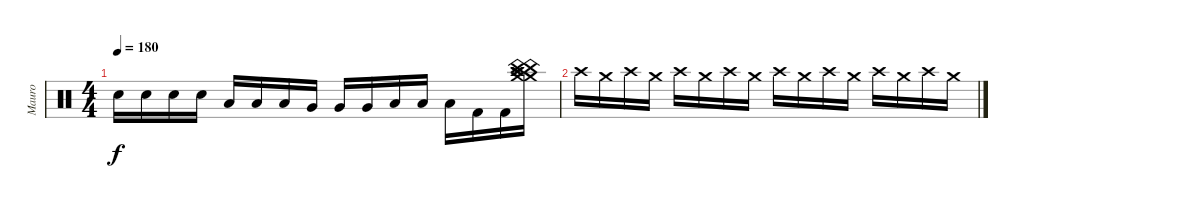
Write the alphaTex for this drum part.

\track ("Mauro" "Mauro") {instrument percussion}
\staff {score}
\articulation defaults
\ts (4 4)
\tempo 180
\clef neutral
\ks c "Snare (hit) 2".16{dy f} "Snare (hit) 2".16 "Snare (hit) 2".16 "Snare (hit) 2".16 "Low Tom (hit)".16 "Low Tom (hit)".16 "Low Tom (hit)".16 "Very Low Tom (hit)".16 "Very Low Tom (hit)".16 "Very Low Tom (hit)".16 "Low Floor Tom (hit)".16 "Low Floor Tom (hit)".16 "Low Floor Tom (hit)".16 "Kick (hit) 2".16 "Kick (hit) 2".16
("China (hit)" "Crash high (hit)" "Crash medium (hit)" "Crash high (hit)" "China (hit)" "Crash medium (hit)").16 |
"Crash high (hit)".16 "Crash medium (hit)".16 "Crash high (hit)".16 "Crash medium (hit)".16 "Crash high (hit)".16 "Crash medium (hit)".16 "Crash high (hit)".16 "Crash medium (hit)".16 "Crash high (hit)".16 "Crash medium (hit)".16 "Crash high (hit)".16 "Crash medium (hit)".16 "Crash high (hit)".16 "Crash medium (hit)".16 "Crash high (hit)".16 "Crash medium (hit)".16
